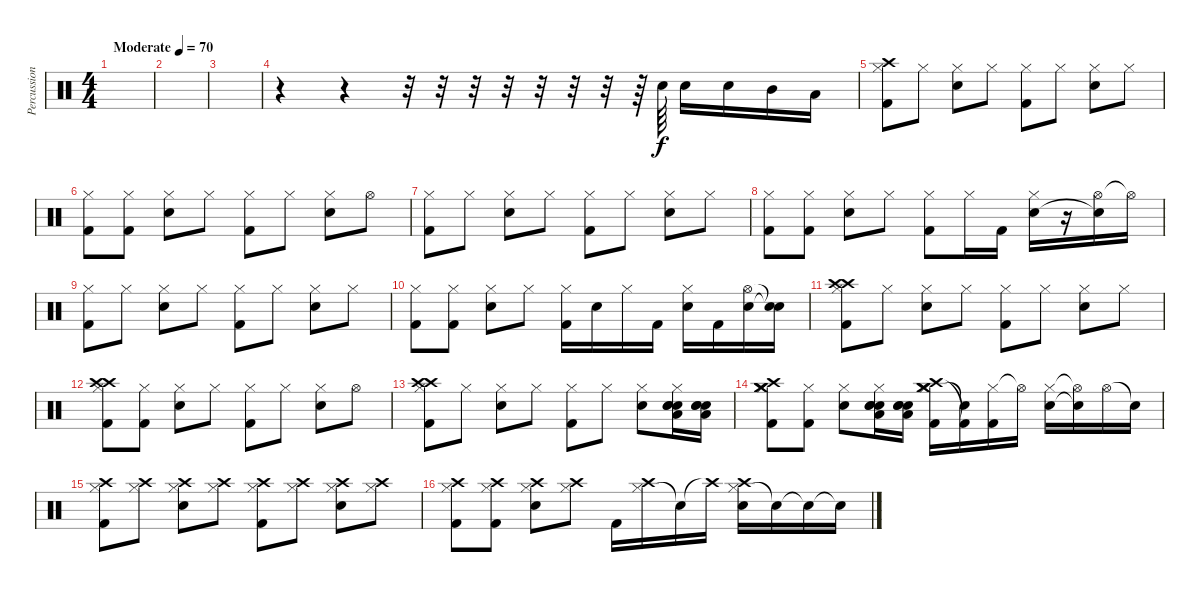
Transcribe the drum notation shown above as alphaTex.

\track ("Percussion" "Percussion") {instrument percussion}
\staff {score}
\articulation defaults
\ts (4 4)
\tempo (70 "Moderate")
\clef neutral
\ks c
|
|
|
r.4 r.4 r.32 r.32 r.32 r.32 r.32 r.32 r.32 r.64 "Snare (hit) 2".64 "Snare (hit) 2".16 "Snare (hit) 2".16 "Mid Tom (hit)".16 "Low Tom (hit)".16 |
("Hi-Hat (closed)" "Crash high (hit)" "Kick (hit) 2").8 "Hi-Hat (closed)".8 ("Hi-Hat (closed)" "Snare (hit) 2").8 "Hi-Hat (closed)".8 ("Hi-Hat (closed)" "Kick (hit) 2").8 "Hi-Hat (closed)".8 ("Hi-Hat (closed)" "Snare (hit) 2").8 "Hi-Hat (closed)".8 |
("Hi-Hat (closed)" "Kick (hit) 2").8 ("Hi-Hat (closed)" "Kick (hit) 2").8 ("Hi-Hat (closed)" "Snare (hit) 2").8 "Hi-Hat (closed)".8 ("Hi-Hat (closed)" "Kick (hit) 2").8 "Hi-Hat (closed)".8 ("Hi-Hat (closed)" "Snare (hit) 2").8 "Hi-Hat (open)".8 |
("Hi-Hat (closed)" "Kick (hit) 2").8 "Hi-Hat (closed)".8 ("Hi-Hat (closed)" "Snare (hit) 2").8 "Hi-Hat (closed)".8 ("Hi-Hat (closed)" "Kick (hit) 2").8 "Hi-Hat (closed)".8 ("Hi-Hat (closed)" "Snare (hit) 2").8 "Hi-Hat (closed)".8 |
("Hi-Hat (closed)" "Kick (hit) 2").8 ("Hi-Hat (closed)" "Kick (hit) 2").8 ("Hi-Hat (closed)" "Snare (hit) 2").8 "Hi-Hat (closed)".8 ("Hi-Hat (closed)" "Kick (hit) 2").8 "Hi-Hat (closed)".16 "Kick (hit) 2".16 ("Hi-Hat (closed)" "Snare (hit) 2").16 r.16 ("Hi-Hat (open)" "Snare (hit)"{t}).16 "Hi-Hat (open)"{t}.16 |
("Hi-Hat (closed)" "Kick (hit) 2").8 "Hi-Hat (closed)".8 ("Hi-Hat (closed)" "Snare (hit) 2").8 "Hi-Hat (closed)".8 ("Hi-Hat (closed)" "Kick (hit) 2").8 "Hi-Hat (closed)".8 ("Hi-Hat (closed)" "Snare (hit) 2").8 "Hi-Hat (closed)".8 |
("Hi-Hat (closed)" "Kick (hit) 2").8 ("Hi-Hat (closed)" "Kick (hit) 2").8 ("Hi-Hat (closed)" "Snare (hit) 2").8 "Hi-Hat (closed)".8 ("Hi-Hat (closed)" "Kick (hit) 2").16 "Snare (hit) 2".16 "Hi-Hat (closed)".16 "Kick (hit) 2".16 ("Hi-Hat (closed)" "Snare (hit) 2").16 "Kick (hit) 2".16 ("Hi-Hat (open)" "Snare (hit) 2").16 ("Snare (hit)"{t} "Snare (hit)"{t}).16 |
("Hi-Hat (closed)" "Crash high (hit)" "Crash high (hit)" "Kick (hit) 2").8 "Hi-Hat (closed)".8 ("Hi-Hat (closed)" "Snare (hit) 2").8 "Hi-Hat (closed)".8 ("Hi-Hat (closed)" "Kick (hit) 2").8 "Hi-Hat (closed)".8 ("Hi-Hat (closed)" "Snare (hit) 2").8 "Hi-Hat (closed)".8 |
("Hi-Hat (closed)" "Crash high (hit)" "Crash high (hit)" "Kick (hit) 2").8 ("Hi-Hat (closed)" "Kick (hit) 2").8 ("Hi-Hat (closed)" "Snare (hit) 2").8 "Hi-Hat (closed)".8 ("Hi-Hat (closed)" "Kick (hit) 2").8 "Hi-Hat (closed)".8 ("Hi-Hat (closed)" "Snare (hit) 2").8 "Hi-Hat (open)".8 |
("Hi-Hat (closed)" "Crash high (hit)" "Crash high (hit)" "Kick (hit) 2").8 "Hi-Hat (closed)".8 ("Hi-Hat (closed)" "Snare (hit) 2").8 "Hi-Hat (closed)".8 ("Hi-Hat (closed)" "Kick (hit) 2").8 "Hi-Hat (closed)".8 ("Hi-Hat (closed)" "Snare (hit) 2").8 ("Hi-Hat (closed)" "Snare (hit) 2" "Low Tom (hit)" "Snare (hit) 2" "Snare (hit) 2").16 ("Snare (hit) 2" "Low Tom (hit)" "Snare (hit) 2" "Snare (hit) 2").16 |
("Hi-Hat (closed)" "Crash high (hit)" "Crash medium (hit)" "Crash medium (hit)" "Kick (hit) 2").8 ("Hi-Hat (closed)" "Kick (hit) 2").8 ("Hi-Hat (closed)" "Snare (hit) 2").8 ("Hi-Hat (closed)" "Snare (hit) 2" "Low Tom (hit)" "Snare (hit) 2" "Snare (hit) 2").16 ("Snare (hit) 2" "Low Tom (hit)" "Snare (hit) 2" "Snare (hit) 2").16 ("Hi-Hat (closed)" "Crash high (hit)" "Crash medium (hit)" "Crash medium (hit)" "Kick (hit) 2").16 ("Snare (hit)"{t} "Kick (hit) 2"{t}).16 ("Hi-Hat (closed)" "Kick (hit) 2").16 "Hi-Hat (open)"{t}.16 ("Hi-Hat (closed)" "Snare (hit) 2").16 ("Hi-Hat (open)"{t} "Snare (hit)"{t}).16 "Hi-Hat (open)".16 "Snare (hit)"{t}.16 |
("Hi-Hat (closed)" "Crash high (hit)" "Kick (hit) 2").8 ("Hi-Hat (closed)" "Crash high (hit)").8 ("Hi-Hat (closed)" "Snare (hit) 2" "Crash high (hit)").8 ("Hi-Hat (closed)" "Crash high (hit)").8 ("Hi-Hat (closed)" "Crash high (hit)" "Kick (hit) 2").8 ("Hi-Hat (closed)" "Crash high (hit)").8 ("Hi-Hat (closed)" "Snare (hit) 2" "Crash high (hit)").8 ("Hi-Hat (closed)" "Crash high (hit)").8 |
("Hi-Hat (closed)" "Crash high (hit)" "Kick (hit) 2").8 ("Hi-Hat (closed)" "Crash high (hit)" "Kick (hit) 2").8 ("Hi-Hat (closed)" "Snare (hit) 2" "Crash high (hit)").8 ("Hi-Hat (closed)" "Crash high (hit)").8 "Kick (hit) 2".16 ("Hi-Hat (closed)" "Crash high (hit)").16 "Snare (hit) 2"{t}.16 "Crash high (hit)"{t}.16 ("Hi-Hat (closed)" "Crash high (hit)" "Snare (hit) 2").16 "Snare (hit)"{t}.16 "Snare (hit)"{t}.16 "Snare (hit)"{t}.16
